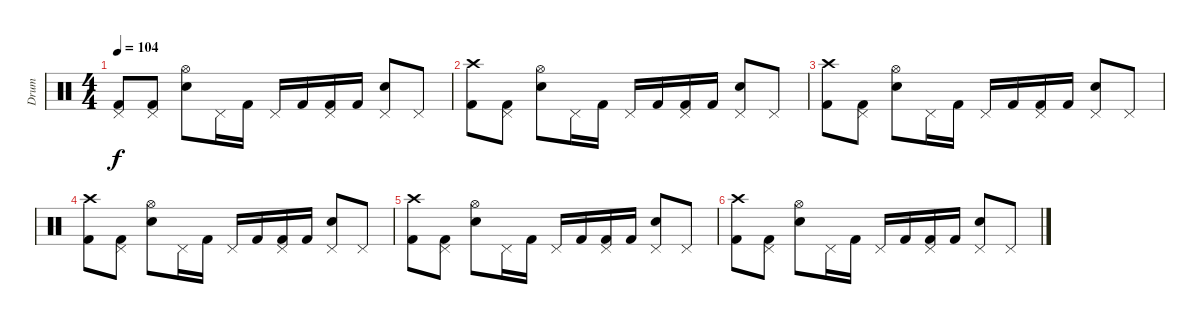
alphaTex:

\track ("Drum" "Drum") {instrument percussion}
\staff {score}
\articulation defaults
\ts (4 4)
\tempo 104
\clef neutral
\ks c
("Pedal Hi-Hat (hit)" "Kick (hit) 2").8{dy f} ("Pedal Hi-Hat (hit)" "Kick (hit) 2").8 ("Hi-Hat (open)" "Snare (hit) 2").8 "Pedal Hi-Hat (hit)".16 "Kick (hit) 2".16 "Pedal Hi-Hat (hit)".16 "Kick (hit) 2".16 ("Pedal Hi-Hat (hit)" "Kick (hit) 2").16 "Kick (hit) 2".16 ("Pedal Hi-Hat (hit)" "Snare (hit) 2").8 "Pedal Hi-Hat (hit)".8 |
("Crash high (hit)" "Kick (hit) 2").8 ("Pedal Hi-Hat (hit)" "Kick (hit) 2").8 ("Hi-Hat (open)" "Snare (hit) 2").8 "Pedal Hi-Hat (hit)".16 "Kick (hit) 2".16 "Pedal Hi-Hat (hit)".16 "Kick (hit) 2".16 ("Pedal Hi-Hat (hit)" "Kick (hit) 2").16 "Kick (hit) 2".16 ("Pedal Hi-Hat (hit)" "Snare (hit) 2").8 "Pedal Hi-Hat (hit)".8 |
("Crash high (hit)" "Kick (hit) 2").8 ("Pedal Hi-Hat (hit)" "Kick (hit) 2").8 ("Hi-Hat (open)" "Snare (hit) 2").8 "Pedal Hi-Hat (hit)".16 "Kick (hit) 2".16 "Pedal Hi-Hat (hit)".16 "Kick (hit) 2".16 ("Pedal Hi-Hat (hit)" "Kick (hit) 2").16 "Kick (hit) 2".16 ("Pedal Hi-Hat (hit)" "Snare (hit) 2").8 "Pedal Hi-Hat (hit)".8 |
("Crash high (hit)" "Kick (hit) 2").8 ("Pedal Hi-Hat (hit)" "Kick (hit) 2").8 ("Hi-Hat (open)" "Snare (hit) 2").8 "Pedal Hi-Hat (hit)".16 "Kick (hit) 2".16 "Pedal Hi-Hat (hit)".16 "Kick (hit) 2".16 ("Pedal Hi-Hat (hit)" "Kick (hit) 2").16 "Kick (hit) 2".16 ("Pedal Hi-Hat (hit)" "Snare (hit) 2").8 "Pedal Hi-Hat (hit)".8 |
("Crash high (hit)" "Kick (hit) 2").8 ("Pedal Hi-Hat (hit)" "Kick (hit) 2").8 ("Hi-Hat (open)" "Snare (hit) 2").8 "Pedal Hi-Hat (hit)".16 "Kick (hit) 2".16 "Pedal Hi-Hat (hit)".16 "Kick (hit) 2".16 ("Pedal Hi-Hat (hit)" "Kick (hit) 2").16 "Kick (hit) 2".16 ("Pedal Hi-Hat (hit)" "Snare (hit) 2").8 "Pedal Hi-Hat (hit)".8 |
("Crash high (hit)" "Kick (hit) 2").8 ("Pedal Hi-Hat (hit)" "Kick (hit) 2").8 ("Hi-Hat (open)" "Snare (hit) 2").8 "Pedal Hi-Hat (hit)".16 "Kick (hit) 2".16 "Pedal Hi-Hat (hit)".16 "Kick (hit) 2".16 ("Pedal Hi-Hat (hit)" "Kick (hit) 2").16 "Kick (hit) 2".16 ("Pedal Hi-Hat (hit)" "Snare (hit) 2").8 "Pedal Hi-Hat (hit)".8
